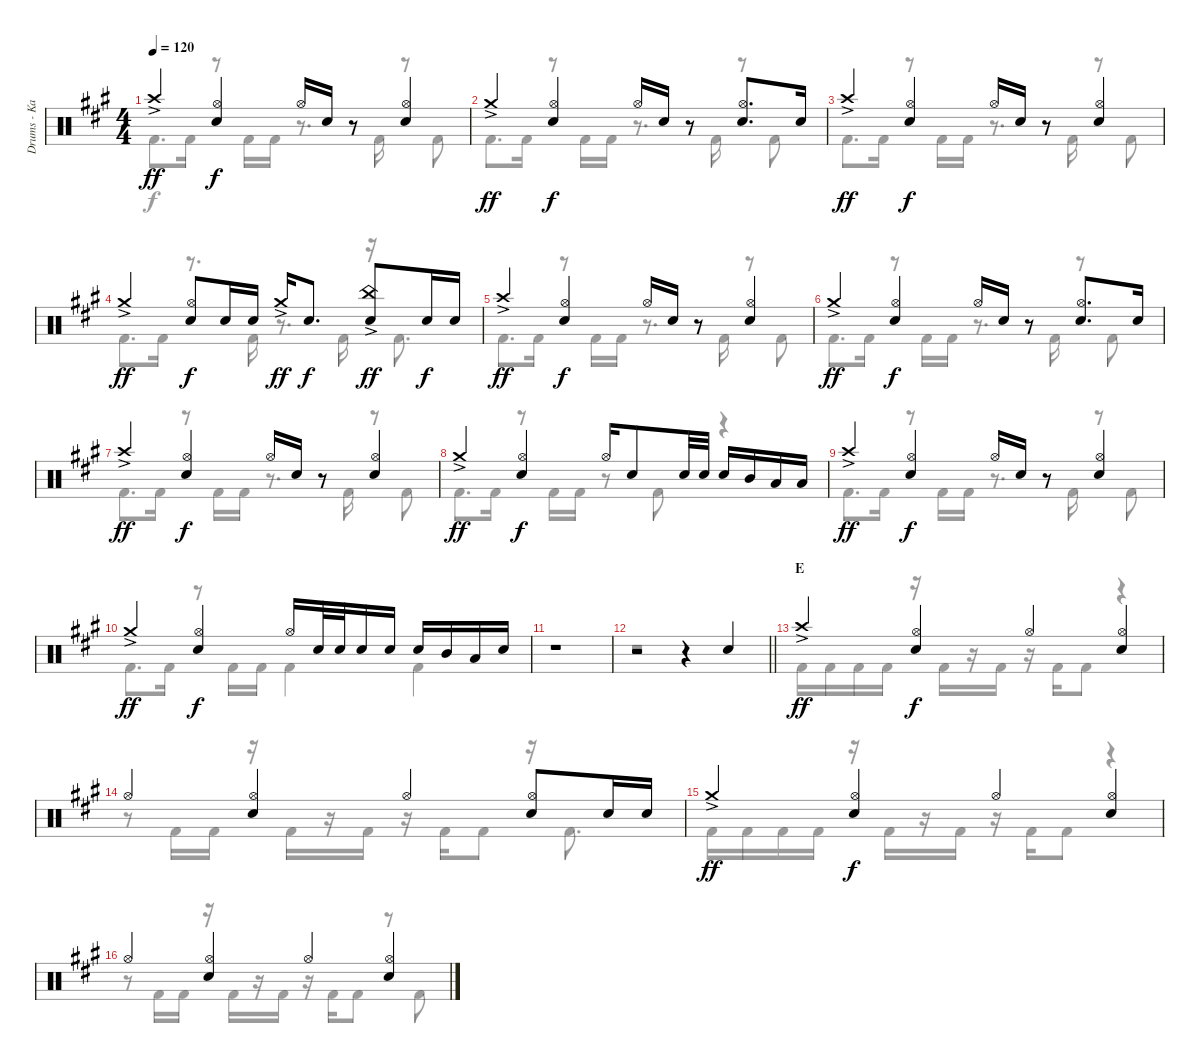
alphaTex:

\track ("Drums - Kai" "Drums - Ka") {instrument percussion}
\staff {score}
\articulation defaults
\voice
\ts (4 4)
\tempo 120
\clef neutral
\ks a "Crash high (hit)"{ac}.4{dy ff}
("Hi-Hat (open)" "Snare (hit) 2").4{dy f} "Hi-Hat (open)".16 "Snare (hit) 2".16 r.8 ("Hi-Hat (open)" "Snare (hit) 2").4 |
"Crash medium (hit)"{ac}.4{dy ff} ("Hi-Hat (open)" "Snare (hit) 2").4{dy f} "Hi-Hat (open)".16 "Snare (hit) 2".16 r.8 ("Hi-Hat (open)" "Snare (hit) 2").8{d} "Snare (hit) 2".16 |
"Crash high (hit)"{ac}.4{dy ff} ("Hi-Hat (open)" "Snare (hit) 2").4{dy f} "Hi-Hat (open)".16 "Snare (hit) 2".16 r.8 ("Hi-Hat (open)" "Snare (hit) 2").4 |
"Crash medium (hit)"{ac}.4{dy ff} ("Hi-Hat (open)" "Snare (hit) 2").8{dy f} "Snare (hit) 2".16 "Snare (hit) 2".16 "Crash medium (hit)"{ac}.16{dy ff} "Snare (hit) 2".8{d dy f} ("China (hit)"{ac} "Snare (hit) 2").8{dy ff} "Snare (hit) 2".16{dy f} "Snare (hit) 2".16 |
"Crash high (hit)"{ac}.4{dy ff} ("Hi-Hat (open)" "Snare (hit) 2").4{dy f} "Hi-Hat (open)".16 "Snare (hit) 2".16 r.8 ("Hi-Hat (open)" "Snare (hit) 2").4 |
"Crash medium (hit)"{ac}.4{dy ff} ("Hi-Hat (open)" "Snare (hit) 2").4{dy f} "Hi-Hat (open)".16 "Snare (hit) 2".16 r.8 ("Hi-Hat (open)" "Snare (hit) 2").8{d} "Snare (hit) 2".16 |
"Crash high (hit)"{ac}.4{dy ff} ("Hi-Hat (open)" "Snare (hit) 2").4{dy f} "Hi-Hat (open)".16 "Snare (hit) 2".16 r.8 ("Hi-Hat (open)" "Snare (hit) 2").4 |
"Crash medium (hit)"{ac}.4{dy ff} ("Hi-Hat (open)" "Snare (hit) 2").4{dy f} "Hi-Hat (open)".16 "Snare (hit) 2".8 "Snare (hit) 2".32 "Snare (hit) 2".32 "Snare (hit) 2".16 "Mid Tom (hit)".16 "Low Tom (hit)".16 "Low Tom (hit)".16 |
"Crash high (hit)"{ac}.4{dy ff} ("Hi-Hat (open)" "Snare (hit) 2").4{dy f} "Hi-Hat (open)".16 "Snare (hit) 2".16 r.8 ("Hi-Hat (open)" "Snare (hit) 2").4 |
"Crash medium (hit)"{ac}.4{dy ff} ("Hi-Hat (open)" "Snare (hit) 2").4{dy f} "Hi-Hat (open)".16 "Snare (hit) 2".32 "Snare (hit) 2".32 "Snare (hit) 2".16 "Snare (hit) 2".16 "Snare (hit) 2".16 "Mid Tom (hit)".16 "Low Tom (hit)".16 "Snare (hit) 2".16 |
r.1 |
\barLineRight lightlight
r.2 r.4 "Snare (hit) 2".4 |
\section ("" "E")
"Crash high (hit)"{ac}.4{dy ff} ("Hi-Hat (open)" "Snare (hit) 2").4{dy f} "Hi-Hat (open)".4 ("Hi-Hat (open)" "Snare (hit) 2").4 |
"Hi-Hat (open)".4 ("Hi-Hat (open)" "Snare (hit) 2").4 "Hi-Hat (open)".4 ("Hi-Hat (open)" "Snare (hit) 2").8 "Snare (hit) 2".16 "Snare (hit) 2".16 |
"Crash medium (hit)"{ac}.4{dy ff} ("Hi-Hat (open)" "Snare (hit) 2").4{dy f} "Hi-Hat (open)".4 ("Hi-Hat (open)" "Snare (hit) 2").4 |
"Hi-Hat (open)".4 ("Hi-Hat (open)" "Snare (hit) 2").4 "Hi-Hat (open)".4 ("Hi-Hat (open)" "Snare (hit) 2").4
\voice
\clef neutral
\ottava regular
\simile none
\ks a "Kick (hit) 2".8{d dy f} "Kick (hit) 2".16
r.8 "Kick (hit) 2".16 "Kick (hit) 2".16 r.8{d} "Kick (hit) 2".16 r.8 "Kick (hit) 2".8 |
"Kick (hit) 2".8{d} "Kick (hit) 2".16 r.8 "Kick (hit) 2".16 "Kick (hit) 2".16 r.8{d} "Kick (hit) 2".16 r.8 "Kick (hit) 2".8 |
"Kick (hit) 2".8{d} "Kick (hit) 2".16 r.8 "Kick (hit) 2".16 "Kick (hit) 2".16 r.8{d} "Kick (hit) 2".16 r.8 "Kick (hit) 2".8 |
"Kick (hit) 2".8{d} "Kick (hit) 2".16 r.8{d} "Kick (hit) 2".16 r.8{d} "Kick (hit) 2".16 r.16 "Kick (hit) 2".8{d} |
"Kick (hit) 2".8{d} "Kick (hit) 2".16 r.8 "Kick (hit) 2".16 "Kick (hit) 2".16 r.8{d} "Kick (hit) 2".16 r.8 "Kick (hit) 2".8 |
"Kick (hit) 2".8{d} "Kick (hit) 2".16 r.8 "Kick (hit) 2".16 "Kick (hit) 2".16 r.8{d} "Kick (hit) 2".16 r.8 "Kick (hit) 2".8 |
"Kick (hit) 2".8{d} "Kick (hit) 2".16 r.8 "Kick (hit) 2".16 "Kick (hit) 2".16 r.8{d} "Kick (hit) 2".16 r.8 "Kick (hit) 2".8 |
"Kick (hit) 2".8{d} "Kick (hit) 2".16 r.8 "Kick (hit) 2".16 "Kick (hit) 2".16 r.8 "Kick (hit) 2".8 r.4 |
"Kick (hit) 2".8{d} "Kick (hit) 2".16 r.8 "Kick (hit) 2".16 "Kick (hit) 2".16 r.8{d} "Kick (hit) 2".16 r.8 "Kick (hit) 2".8 |
"Kick (hit) 2".8{d} "Kick (hit) 2".16 r.8 "Kick (hit) 2".16 "Kick (hit) 2".16 "Kick (hit) 2".4 "Kick (hit) 2".4 |
|
\barLineRight lightlight
r.1 |
"Kick (hit) 2".16 "Kick (hit) 2".16 "Kick (hit) 2".16 "Kick (hit) 2".16 r.16 "Kick (hit) 2".16 r.16 "Kick (hit) 2".16 r.16 "Kick (hit) 2".16 "Kick (hit) 2".8 r.4 |
r.8 "Kick (hit) 2".16 "Kick (hit) 2".16 r.16 "Kick (hit) 2".16 r.16 "Kick (hit) 2".16 r.16 "Kick (hit) 2".16 "Kick (hit) 2".8 r.16 "Kick (hit) 2".8{d} |
"Kick (hit) 2".16 "Kick (hit) 2".16 "Kick (hit) 2".16 "Kick (hit) 2".16 r.16 "Kick (hit) 2".16 r.16 "Kick (hit) 2".16 r.16 "Kick (hit) 2".16 "Kick (hit) 2".8 r.4 |
r.8 "Kick (hit) 2".16 "Kick (hit) 2".16 r.16 "Kick (hit) 2".16 r.16 "Kick (hit) 2".16 r.16 "Kick (hit) 2".16 "Kick (hit) 2".8 r.8 "Kick (hit) 2".8
